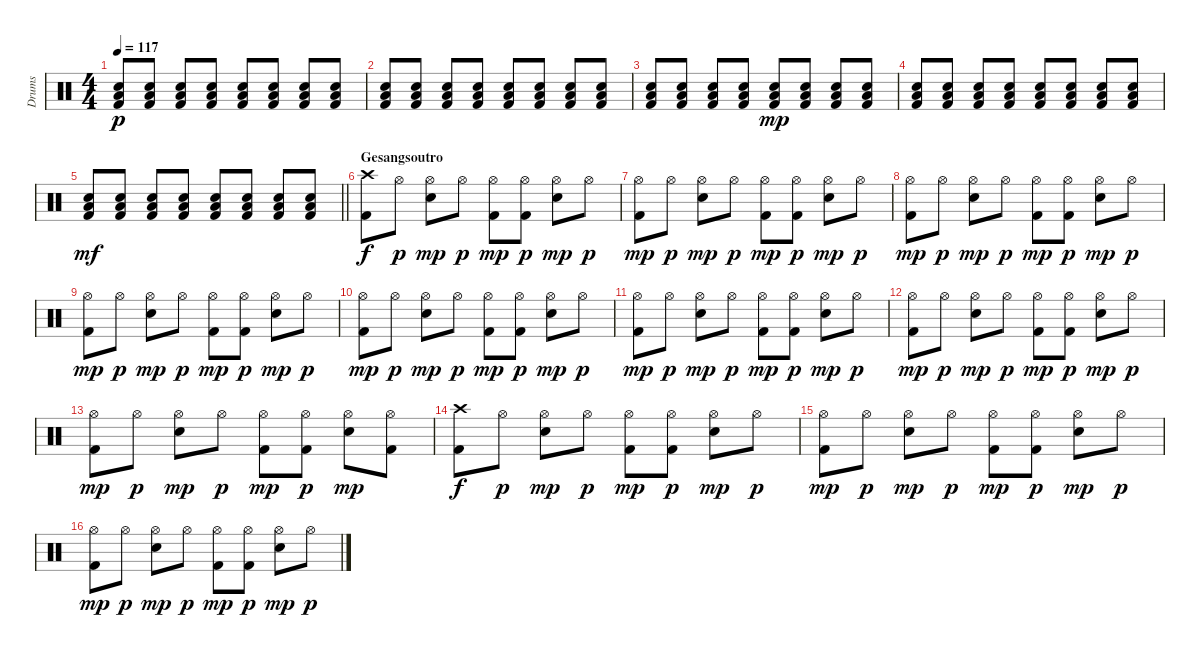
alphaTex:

\track ("Drums" "Drums") {instrument percussion}
\staff {score}
\articulation defaults
\ts (4 4)
\tempo 117
\clef neutral
\ks c
("Low Floor Tom (hit)" "Snare (hit) 2" "Kick (hit) 2").8{dy p} ("Low Floor Tom (hit)" "Snare (hit) 2" "Kick (hit) 2").8 ("Low Floor Tom (hit)" "Snare (hit) 2" "Kick (hit) 2").8 ("Low Floor Tom (hit)" "Snare (hit) 2" "Kick (hit) 2").8 ("Low Floor Tom (hit)" "Snare (hit) 2" "Kick (hit) 2").8 ("Low Floor Tom (hit)" "Snare (hit) 2" "Kick (hit) 2").8 ("Low Floor Tom (hit)" "Snare (hit) 2" "Kick (hit) 2").8 ("Low Floor Tom (hit)" "Snare (hit) 2" "Kick (hit) 2").8 |
("Low Floor Tom (hit)" "Snare (hit) 2" "Kick (hit) 2").8 ("Low Floor Tom (hit)" "Snare (hit) 2" "Kick (hit) 2").8 ("Low Floor Tom (hit)" "Snare (hit) 2" "Kick (hit) 2").8 ("Low Floor Tom (hit)" "Snare (hit) 2" "Kick (hit) 2").8 ("Low Floor Tom (hit)" "Snare (hit) 2" "Kick (hit) 2").8 ("Low Floor Tom (hit)" "Snare (hit) 2" "Kick (hit) 2").8 ("Low Floor Tom (hit)" "Snare (hit) 2" "Kick (hit) 2").8 ("Low Floor Tom (hit)" "Snare (hit) 2" "Kick (hit) 2").8 |
("Low Floor Tom (hit)" "Snare (hit) 2" "Kick (hit) 2").8 ("Low Floor Tom (hit)" "Snare (hit) 2" "Kick (hit) 2").8 ("Low Floor Tom (hit)" "Snare (hit) 2" "Kick (hit) 2").8 ("Low Floor Tom (hit)" "Snare (hit) 2" "Kick (hit) 2").8 ("Low Floor Tom (hit)" "Snare (hit) 2" "Kick (hit) 2").8{dy mp} ("Low Floor Tom (hit)" "Snare (hit) 2" "Kick (hit) 2").8 ("Low Floor Tom (hit)" "Snare (hit) 2" "Kick (hit) 2").8 ("Low Floor Tom (hit)" "Snare (hit) 2" "Kick (hit) 2").8 |
("Low Floor Tom (hit)" "Snare (hit) 2" "Kick (hit) 2").8 ("Low Floor Tom (hit)" "Snare (hit) 2" "Kick (hit) 2").8 ("Low Floor Tom (hit)" "Snare (hit) 2" "Kick (hit) 2").8 ("Low Floor Tom (hit)" "Snare (hit) 2" "Kick (hit) 2").8 ("Low Floor Tom (hit)" "Snare (hit) 2" "Kick (hit) 2").8 ("Low Floor Tom (hit)" "Snare (hit) 2" "Kick (hit) 2").8 ("Low Floor Tom (hit)" "Snare (hit) 2" "Kick (hit) 2").8 ("Low Floor Tom (hit)" "Snare (hit) 2" "Kick (hit) 2").8 |
\barLineRight lightlight
("Low Floor Tom (hit)" "Snare (hit) 2" "Kick (hit) 2").8{dy mf} ("Low Floor Tom (hit)" "Snare (hit) 2" "Kick (hit) 2").8 ("Low Floor Tom (hit)" "Snare (hit) 2" "Kick (hit) 2").8 ("Low Floor Tom (hit)" "Snare (hit) 2" "Kick (hit) 2").8 ("Low Floor Tom (hit)" "Snare (hit) 2" "Kick (hit) 2").8 ("Low Floor Tom (hit)" "Snare (hit) 2" "Kick (hit) 2").8 ("Low Floor Tom (hit)" "Snare (hit) 2" "Kick (hit) 2").8 ("Low Floor Tom (hit)" "Snare (hit) 2" "Kick (hit) 2").8 |
\section ("" "Gesangsoutro")
("Crash high (hit)" "Kick (hit) 2").8{dy f} "Hi-Hat (open)".8{dy p} ("Hi-Hat (open)" "Snare (hit) 2").8{dy mp} "Hi-Hat (open)".8{dy p} ("Hi-Hat (open)" "Kick (hit) 2").8{dy mp} ("Hi-Hat (open)" "Kick (hit) 2").8{dy p} ("Hi-Hat (open)" "Snare (hit) 2").8{dy mp} "Hi-Hat (open)".8{dy p} |
("Hi-Hat (open)" "Kick (hit) 2").8{dy mp} "Hi-Hat (open)".8{dy p} ("Hi-Hat (open)" "Snare (hit) 2").8{dy mp} "Hi-Hat (open)".8{dy p} ("Hi-Hat (open)" "Kick (hit) 2").8{dy mp} ("Hi-Hat (open)" "Kick (hit) 2").8{dy p} ("Hi-Hat (open)" "Snare (hit) 2").8{dy mp} "Hi-Hat (open)".8{dy p} |
("Hi-Hat (open)" "Kick (hit) 2").8{dy mp} "Hi-Hat (open)".8{dy p} ("Hi-Hat (open)" "Snare (hit) 2").8{dy mp} "Hi-Hat (open)".8{dy p} ("Hi-Hat (open)" "Kick (hit) 2").8{dy mp} ("Hi-Hat (open)" "Kick (hit) 2").8{dy p} ("Hi-Hat (open)" "Snare (hit) 2").8{dy mp} "Hi-Hat (open)".8{dy p} |
("Hi-Hat (open)" "Kick (hit) 2").8{dy mp} "Hi-Hat (open)".8{dy p} ("Hi-Hat (open)" "Snare (hit) 2").8{dy mp} "Hi-Hat (open)".8{dy p} ("Hi-Hat (open)" "Kick (hit) 2").8{dy mp} ("Hi-Hat (open)" "Kick (hit) 2").8{dy p} ("Hi-Hat (open)" "Snare (hit) 2").8{dy mp} "Hi-Hat (open)".8{dy p} |
("Hi-Hat (open)" "Kick (hit) 2").8{dy mp} "Hi-Hat (open)".8{dy p} ("Hi-Hat (open)" "Snare (hit) 2").8{dy mp} "Hi-Hat (open)".8{dy p} ("Hi-Hat (open)" "Kick (hit) 2").8{dy mp} ("Hi-Hat (open)" "Kick (hit) 2").8{dy p} ("Hi-Hat (open)" "Snare (hit) 2").8{dy mp} "Hi-Hat (open)".8{dy p} |
("Hi-Hat (open)" "Kick (hit) 2").8{dy mp} "Hi-Hat (open)".8{dy p} ("Hi-Hat (open)" "Snare (hit) 2").8{dy mp} "Hi-Hat (open)".8{dy p} ("Hi-Hat (open)" "Kick (hit) 2").8{dy mp} ("Hi-Hat (open)" "Kick (hit) 2").8{dy p} ("Hi-Hat (open)" "Snare (hit) 2").8{dy mp} "Hi-Hat (open)".8{dy p} |
("Hi-Hat (open)" "Kick (hit) 2").8{dy mp} "Hi-Hat (open)".8{dy p} ("Hi-Hat (open)" "Snare (hit) 2").8{dy mp} "Hi-Hat (open)".8{dy p} ("Hi-Hat (open)" "Kick (hit) 2").8{dy mp} ("Hi-Hat (open)" "Kick (hit) 2").8{dy p} ("Hi-Hat (open)" "Snare (hit) 2").8{dy mp} "Hi-Hat (open)".8{dy p} |
("Hi-Hat (open)" "Kick (hit) 2").8{dy mp} "Hi-Hat (open)".8{dy p} ("Hi-Hat (open)" "Snare (hit) 2").8{dy mp} "Hi-Hat (open)".8{dy p} ("Hi-Hat (open)" "Kick (hit) 2").8{dy mp} ("Hi-Hat (open)" "Kick (hit) 2").8{dy p} ("Hi-Hat (open)" "Snare (hit) 2").8{dy mp} ("Hi-Hat (open)" "Kick (hit) 2").8 |
("Crash high (hit)" "Kick (hit) 2").8{dy f} "Hi-Hat (open)".8{dy p} ("Hi-Hat (open)" "Snare (hit) 2").8{dy mp} "Hi-Hat (open)".8{dy p} ("Hi-Hat (open)" "Kick (hit) 2").8{dy mp} ("Hi-Hat (open)" "Kick (hit) 2").8{dy p} ("Hi-Hat (open)" "Snare (hit) 2").8{dy mp} "Hi-Hat (open)".8{dy p} |
("Hi-Hat (open)" "Kick (hit) 2").8{dy mp} "Hi-Hat (open)".8{dy p} ("Hi-Hat (open)" "Snare (hit) 2").8{dy mp} "Hi-Hat (open)".8{dy p} ("Hi-Hat (open)" "Kick (hit) 2").8{dy mp} ("Hi-Hat (open)" "Kick (hit) 2").8{dy p} ("Hi-Hat (open)" "Snare (hit) 2").8{dy mp} "Hi-Hat (open)".8{dy p} |
("Hi-Hat (open)" "Kick (hit) 2").8{dy mp} "Hi-Hat (open)".8{dy p} ("Hi-Hat (open)" "Snare (hit) 2").8{dy mp} "Hi-Hat (open)".8{dy p} ("Hi-Hat (open)" "Kick (hit) 2").8{dy mp} ("Hi-Hat (open)" "Kick (hit) 2").8{dy p} ("Hi-Hat (open)" "Snare (hit) 2").8{dy mp} "Hi-Hat (open)".8{dy p}
